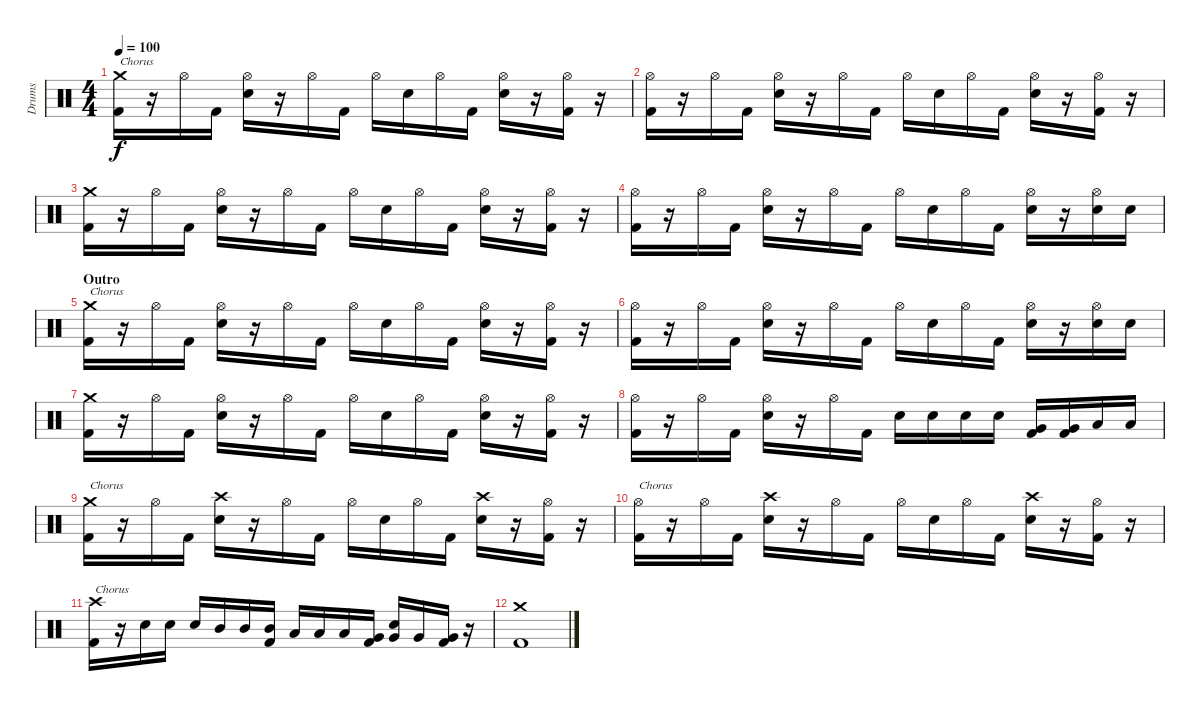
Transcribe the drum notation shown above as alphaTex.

\track ("Drums" "Drums") {instrument percussion}
\staff {score}
\articulation defaults
\ts (4 4)
\tempo 100
\clef neutral
\ks c
("Crash medium (hit)" "Kick (hit) 2").16{txt "Chorus " dy f} r.16 "Hi-Hat (open)".16 "Kick (hit) 2".16 ("Hi-Hat (open)" "Electric Snare (hit)").16 r.16 "Hi-Hat (open)".16 "Kick (hit) 2".16 "Hi-Hat (open)".16 "Electric Snare (hit)".16 "Hi-Hat (open)".16 "Kick (hit) 2".16 ("Hi-Hat (open)" "Electric Snare (hit)").16 r.16 ("Hi-Hat (open)" "Kick (hit) 2").16 r.16 |
("Hi-Hat (open)" "Kick (hit) 2").16 r.16 "Hi-Hat (open)".16 "Kick (hit) 2".16 ("Hi-Hat (open)" "Electric Snare (hit)").16 r.16 "Hi-Hat (open)".16 "Kick (hit) 2".16 "Hi-Hat (open)".16 "Electric Snare (hit)".16 "Hi-Hat (open)".16 "Kick (hit) 2".16 ("Hi-Hat (open)" "Electric Snare (hit)").16 r.16 ("Hi-Hat (open)" "Kick (hit) 2").16 r.16 |
("Crash medium (hit)" "Kick (hit) 2").16 r.16 "Hi-Hat (open)".16 "Kick (hit) 2".16 ("Hi-Hat (open)" "Electric Snare (hit)").16 r.16 "Hi-Hat (open)".16 "Kick (hit) 2".16 "Hi-Hat (open)".16 "Electric Snare (hit)".16 "Hi-Hat (open)".16 "Kick (hit) 2".16 ("Hi-Hat (open)" "Electric Snare (hit)").16 r.16 ("Hi-Hat (open)" "Kick (hit) 2").16 r.16 |
("Hi-Hat (open)" "Kick (hit) 2").16 r.16 "Hi-Hat (open)".16 "Kick (hit) 2".16 ("Hi-Hat (open)" "Electric Snare (hit)").16 r.16 "Hi-Hat (open)".16 "Kick (hit) 2".16 "Hi-Hat (open)".16 "Electric Snare (hit)".16 "Hi-Hat (open)".16 "Kick (hit) 2".16 ("Hi-Hat (open)" "Electric Snare (hit)").16 r.16 ("Hi-Hat (open)" "Electric Snare (hit)").16 "Electric Snare (hit)".16 |
\section ("" "Outro")
("Crash medium (hit)" "Kick (hit) 2").16{txt "Chorus "} r.16 "Hi-Hat (open)".16 "Kick (hit) 2".16 ("Hi-Hat (open)" "Electric Snare (hit)").16 r.16 "Hi-Hat (open)".16 "Kick (hit) 2".16 "Hi-Hat (open)".16 "Electric Snare (hit)".16 "Hi-Hat (open)".16 "Kick (hit) 2".16 ("Hi-Hat (open)" "Electric Snare (hit)").16 r.16 ("Hi-Hat (open)" "Kick (hit) 2").16 r.16 |
("Hi-Hat (open)" "Kick (hit) 2").16 r.16 "Hi-Hat (open)".16 "Kick (hit) 2".16 ("Hi-Hat (open)" "Electric Snare (hit)").16 r.16 "Hi-Hat (open)".16 "Kick (hit) 2".16 "Hi-Hat (open)".16 "Electric Snare (hit)".16 "Hi-Hat (open)".16 "Kick (hit) 2".16 ("Hi-Hat (open)" "Electric Snare (hit)").16 r.16 ("Hi-Hat (open)" "Electric Snare (hit)").16 "Electric Snare (hit)".16 |
("Crash medium (hit)" "Kick (hit) 2").16 r.16 "Hi-Hat (open)".16 "Kick (hit) 2".16 ("Hi-Hat (open)" "Electric Snare (hit)").16 r.16 "Hi-Hat (open)".16 "Kick (hit) 2".16 "Hi-Hat (open)".16 "Electric Snare (hit)".16 "Hi-Hat (open)".16 "Kick (hit) 2".16 ("Hi-Hat (open)" "Electric Snare (hit)").16 r.16 ("Hi-Hat (open)" "Kick (hit) 2").16 r.16 |
("Hi-Hat (open)" "Kick (hit) 2").16 r.16 "Hi-Hat (open)".16 "Kick (hit) 2".16 ("Hi-Hat (open)" "Electric Snare (hit)").16 r.16 "Hi-Hat (open)".16 "Kick (hit) 2".16 "Electric Snare (hit)".16 "Electric Snare (hit)".16 "Electric Snare (hit)".16 "Electric Snare (hit)".16 ("Very Low Tom (hit)" "Kick (hit) 2").16 ("Very Low Tom (hit)" "Kick (hit) 2").16 "Low Floor Tom (hit)".16 "Low Floor Tom (hit)".16 |
("Crash medium (hit)" "Kick (hit) 2").16{txt "Chorus "} r.16 "Hi-Hat (open)".16 "Kick (hit) 2".16 ("Crash high (hit)" "Electric Snare (hit)").16 r.16 "Hi-Hat (open)".16 "Kick (hit) 2".16 "Hi-Hat (open)".16 "Electric Snare (hit)".16 "Hi-Hat (open)".16 "Kick (hit) 2".16 ("Crash high (hit)" "Electric Snare (hit)").16 r.16 ("Hi-Hat (open)" "Kick (hit) 2").16 r.16 |
("Hi-Hat (open)" "Kick (hit) 2").16{txt "Chorus "} r.16 "Hi-Hat (open)".16 "Kick (hit) 2".16 ("Crash high (hit)" "Electric Snare (hit)").16 r.16 "Hi-Hat (open)".16 "Kick (hit) 2".16 "Hi-Hat (open)".16 "Electric Snare (hit)".16 "Hi-Hat (open)".16 "Kick (hit) 2".16 ("Crash high (hit)" "Electric Snare (hit)").16 r.16 ("Hi-Hat (open)" "Kick (hit) 2").16 r.16 |
("Crash high (hit)" "Kick (hit) 2").16{txt "Chorus "} r.16 "Electric Snare (hit)".16 "Electric Snare (hit)".16 "Electric Snare (hit)".16 "Mid Tom (hit)".16 "Mid Tom (hit)".16 ("Mid Tom (hit)" "Kick (hit) 2").16 "Low Tom (hit)".16 "Low Tom (hit)".16 "Low Tom (hit)".16 ("Very Low Tom (hit)" "Kick (hit) 2").16 ("Very Low Tom (hit)" "Electric Snare (hit)").16 "Very Low Tom (hit)".16 ("Very Low Tom (hit)" "Kick (hit) 2").16 r.16 |
("Crash medium (hit)" "Kick (hit) 2").1
